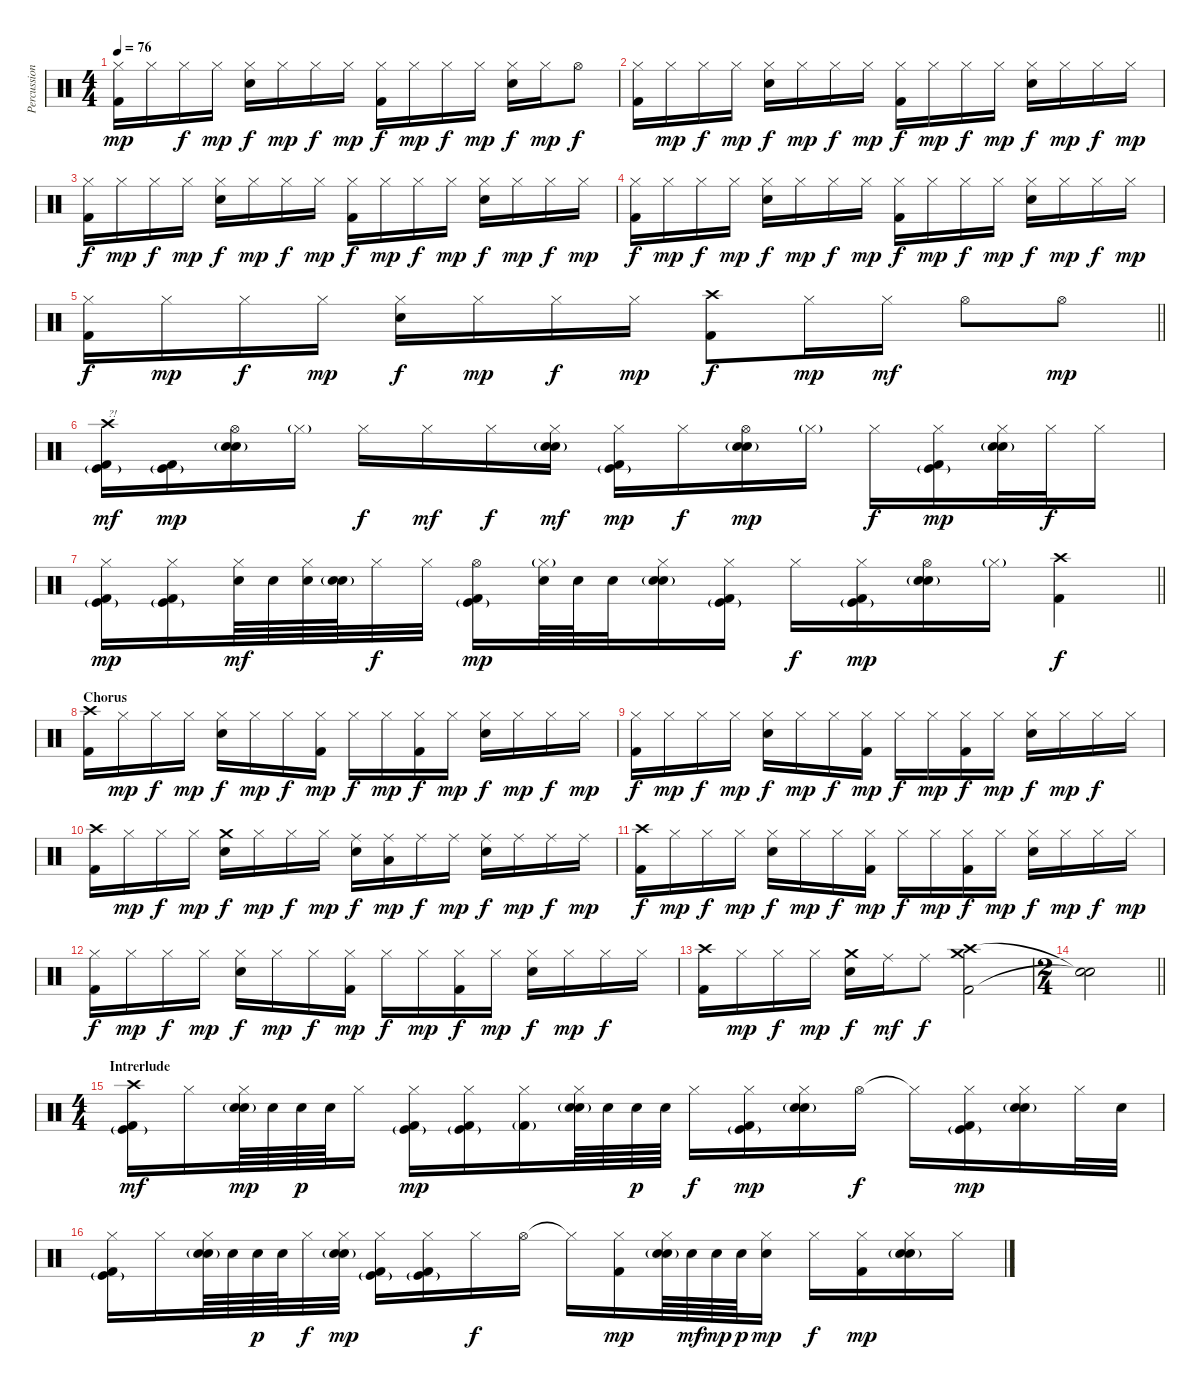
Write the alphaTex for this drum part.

\track ("Percussion" "Percussion") {instrument percussion}
\staff {score}
\articulation defaults
\ts (4 4)
\tempo 76
\clef neutral
\ks c
("Kick (hit) 2" "Hi-Hat (closed)").16{dy mp} "Hi-Hat (closed)".16 "Hi-Hat (closed)".16{dy f} "Hi-Hat (closed)".16{dy mp} ("Snare (hit) 2" "Hi-Hat (closed)").16{dy f} "Hi-Hat (closed)".16{dy mp} "Hi-Hat (closed)".16{dy f} "Hi-Hat (closed)".16{dy mp} ("Kick (hit) 2" "Hi-Hat (closed)").16{dy f} "Hi-Hat (closed)".16{dy mp} "Hi-Hat (closed)".16{dy f} "Hi-Hat (closed)".16{dy mp} ("Snare (hit) 2" "Hi-Hat (closed)").16{dy f} "Hi-Hat (closed)".16{dy mp} "Hi-Hat (open)".8{dy f} |
("Kick (hit) 2" "Hi-Hat (closed)").16 "Hi-Hat (closed)".16{dy mp} "Hi-Hat (closed)".16{dy f} "Hi-Hat (closed)".16{dy mp} ("Snare (hit) 2" "Hi-Hat (closed)").16{dy f} "Hi-Hat (closed)".16{dy mp} "Hi-Hat (closed)".16{dy f} "Hi-Hat (closed)".16{dy mp} ("Kick (hit) 2" "Hi-Hat (closed)").16{dy f} "Hi-Hat (closed)".16{dy mp} "Hi-Hat (closed)".16{dy f} "Hi-Hat (closed)".16{dy mp} ("Snare (hit) 2" "Hi-Hat (closed)").16{dy f} "Hi-Hat (closed)".16{dy mp} "Hi-Hat (closed)".16{dy f} "Hi-Hat (closed)".16{dy mp} |
("Kick (hit) 2" "Hi-Hat (closed)").16{dy f} "Hi-Hat (closed)".16{dy mp} "Hi-Hat (closed)".16{dy f} "Hi-Hat (closed)".16{dy mp} ("Snare (hit) 2" "Hi-Hat (closed)").16{dy f} "Hi-Hat (closed)".16{dy mp} "Hi-Hat (closed)".16{dy f} "Hi-Hat (closed)".16{dy mp} ("Kick (hit) 2" "Hi-Hat (closed)").16{dy f} "Hi-Hat (closed)".16{dy mp} "Hi-Hat (closed)".16{dy f} "Hi-Hat (closed)".16{dy mp} ("Snare (hit) 2" "Hi-Hat (closed)").16{dy f} "Hi-Hat (closed)".16{dy mp} "Hi-Hat (closed)".16{dy f} "Hi-Hat (closed)".16{dy mp} |
("Kick (hit) 2" "Hi-Hat (closed)").16{dy f} "Hi-Hat (closed)".16{dy mp} "Hi-Hat (closed)".16{dy f} "Hi-Hat (closed)".16{dy mp} ("Snare (hit) 2" "Hi-Hat (closed)").16{dy f} "Hi-Hat (closed)".16{dy mp} "Hi-Hat (closed)".16{dy f} "Hi-Hat (closed)".16{dy mp} ("Kick (hit) 2" "Hi-Hat (closed)").16{dy f} "Hi-Hat (closed)".16{dy mp} "Hi-Hat (closed)".16{dy f} "Hi-Hat (closed)".16{dy mp} ("Snare (hit) 2" "Hi-Hat (closed)").16{dy f} "Hi-Hat (closed)".16{dy mp} "Hi-Hat (closed)".16{dy f} "Hi-Hat (closed)".16{dy mp} |
\barLineRight lightlight
("Kick (hit) 2" "Hi-Hat (closed)").16{dy f} "Hi-Hat (closed)".16{dy mp} "Hi-Hat (closed)".16{dy f} "Hi-Hat (closed)".16{dy mp} ("Snare (hit) 2" "Hi-Hat (closed)").16{dy f} "Hi-Hat (closed)".16{dy mp} "Hi-Hat (closed)".16{dy f} "Hi-Hat (closed)".16{dy mp} ("Kick (hit) 2" "Crash high (hit)").8{dy f} "Hi-Hat (closed)".16{dy mp} "Hi-Hat (closed)".16{dy mf} "Hi-Hat (open)".8 "Hi-Hat (open)".8{dy mp} |
\section ("" "")
("Kick (hit) 2" "Kick (hit)"{g} "Crash high (hit)").16{txt "?!" dy mf} ("Kick (hit) 2" "Kick (hit)"{g}).16{dy mp} ("Electric Snare (hit)"{g} "Snare (hit) 2" "Hi-Hat (open)").16 "Hi-Hat (closed)"{g}.16 "Hi-Hat (closed)".16{dy f} "Hi-Hat (closed)".16{dy mf} "Hi-Hat (closed)".16{dy f} ("Electric Snare (hit)"{g} "Snare (hit) 2" "Hi-Hat (closed)").16{dy mf} ("Kick (hit) 2" "Kick (hit)"{g} "Hi-Hat (closed)").16{dy mp} "Hi-Hat (closed)".16{dy f} ("Electric Snare (hit)"{g} "Snare (hit) 2" "Hi-Hat (open)").16{dy mp} "Hi-Hat (closed)"{g}.16 "Hi-Hat (closed)".16{dy f} ("Kick (hit) 2" "Kick (hit)"{g} "Hi-Hat (closed)").16{dy mp} ("Electric Snare (hit)"{g} "Snare (hit) 2" "Hi-Hat (closed)").32 "Hi-Hat (closed)".32{dy f} "Hi-Hat (closed)".16 |
\barLineRight lightlight
("Kick (hit) 2" "Kick (hit)"{g} "Hi-Hat (closed)").16{dy mp} ("Kick (hit) 2" "Kick (hit)"{g} "Hi-Hat (closed)").16 ("Snare (hit) 2" "Hi-Hat (closed)").64{dy mf} "Snare (hit) 2".64 ("Snare (hit) 2" "Hi-Hat (closed)").64 ("Electric Snare (hit)"{g} "Snare (hit) 2").64 "Hi-Hat (closed)".32{dy f} "Hi-Hat (closed)".32 ("Kick (hit) 2" "Kick (hit)"{g} "Hi-Hat (open)").16{dy mp} ("Snare (hit) 2" "Hi-Hat (closed)"{g}).64 "Snare (hit) 2".64 "Snare (hit) 2".32 ("Electric Snare (hit)"{g} "Snare (hit) 2" "Hi-Hat (closed)").16 ("Kick (hit) 2" "Kick (hit)"{g} "Hi-Hat (closed)").16 "Hi-Hat (closed)".16{dy f} ("Kick (hit) 2" "Kick (hit)"{g} "Hi-Hat (closed)").16{dy mp} ("Electric Snare (hit)"{g} "Snare (hit) 2" "Hi-Hat (open)").16 "Hi-Hat (closed)"{g}.16 ("Kick (hit) 2" "Crash high (hit)").4{dy f} |
\section ("" "Chorus")
("Kick (hit) 2" "Crash high (hit)").16 "Hi-Hat (closed)".16{dy mp} "Hi-Hat (closed)".16{dy f} "Hi-Hat (closed)".16{dy mp} ("Snare (hit) 2" "Hi-Hat (closed)").16{dy f} "Hi-Hat (closed)".16{dy mp} "Hi-Hat (closed)".16{dy f} ("Kick (hit) 2" "Hi-Hat (closed)").16{dy mp} "Hi-Hat (closed)".16{dy f} "Hi-Hat (closed)".16{dy mp} ("Kick (hit) 2" "Hi-Hat (closed)").16{dy f} "Hi-Hat (closed)".16{dy mp} ("Snare (hit) 2" "Hi-Hat (closed)").16{dy f} "Hi-Hat (closed)".16{dy mp} "Hi-Hat (closed)".16{dy f} "Hi-Hat (closed)".16{dy mp} |
("Kick (hit) 2" "Hi-Hat (closed)").16{dy f} "Hi-Hat (closed)".16{dy mp} "Hi-Hat (closed)".16{dy f} "Hi-Hat (closed)".16{dy mp} ("Snare (hit) 2" "Hi-Hat (closed)").16{dy f} "Hi-Hat (closed)".16{dy mp} "Hi-Hat (closed)".16{dy f} ("Kick (hit) 2" "Hi-Hat (closed)").16{dy mp} "Hi-Hat (closed)".16{dy f} "Hi-Hat (closed)".16{dy mp} ("Kick (hit) 2" "Hi-Hat (closed)").16{dy f} "Hi-Hat (closed)".16{dy mp} ("Snare (hit) 2" "Hi-Hat (closed)").16{dy f} "Hi-Hat (closed)".16{dy mp} "Hi-Hat (closed)".16{dy f} "Hi-Hat (closed)".16 |
("Kick (hit) 2" "Crash high (hit)").16 "Hi-Hat (closed)".16{dy mp} "Hi-Hat (closed)".16{dy f} "Hi-Hat (closed)".16{dy mp} ("Crash medium (hit)" "Snare (hit) 2").16{dy f} "Hi-Hat (closed)".16{dy mp} "Hi-Hat (closed)".16{dy f} "Hi-Hat (closed)".16{dy mp} ("Ride (middle)" "Snare (hit) 2").16{dy f} ("Ride (middle)" "Low Tom (hit)").16{dy mp} "Ride (middle)".16{dy f} "Ride (middle)".16{dy mp} ("Ride (middle)" "Snare (hit) 2").16{dy f} "Ride (middle)".16{dy mp} "Ride (middle)".16{dy f} "Ride (middle)".16{dy mp} |
("Kick (hit) 2" "Crash high (hit)").16{dy f} "Hi-Hat (closed)".16{dy mp} "Hi-Hat (closed)".16{dy f} "Hi-Hat (closed)".16{dy mp} ("Snare (hit) 2" "Hi-Hat (closed)").16{dy f} "Hi-Hat (closed)".16{dy mp} "Hi-Hat (closed)".16{dy f} ("Kick (hit) 2" "Hi-Hat (closed)").16{dy mp} "Hi-Hat (closed)".16{dy f} "Hi-Hat (closed)".16{dy mp} ("Kick (hit) 2" "Hi-Hat (closed)").16{dy f} "Hi-Hat (closed)".16{dy mp} ("Snare (hit) 2" "Hi-Hat (closed)").16{dy f} "Hi-Hat (closed)".16{dy mp} "Hi-Hat (closed)".16{dy f} "Hi-Hat (closed)".16{dy mp} |
("Kick (hit) 2" "Hi-Hat (closed)").16{dy f} "Hi-Hat (closed)".16{dy mp} "Hi-Hat (closed)".16{dy f} "Hi-Hat (closed)".16{dy mp} ("Snare (hit) 2" "Hi-Hat (closed)").16{dy f} "Hi-Hat (closed)".16{dy mp} "Hi-Hat (closed)".16{dy f} ("Kick (hit) 2" "Hi-Hat (closed)").16{dy mp} "Hi-Hat (closed)".16{dy f} "Hi-Hat (closed)".16{dy mp} ("Kick (hit) 2" "Hi-Hat (closed)").16{dy f} "Hi-Hat (closed)".16{dy mp} ("Snare (hit) 2" "Hi-Hat (closed)").16{dy f} "Hi-Hat (closed)".16{dy mp} "Hi-Hat (closed)".16{dy f} "Hi-Hat (closed)".16 |
("Kick (hit) 2" "Crash high (hit)").16 "Hi-Hat (closed)".16{dy mp} "Hi-Hat (closed)".16{dy f} "Hi-Hat (closed)".16{dy mp} ("Crash medium (hit)" "Snare (hit) 2").16{dy f} "Ride (middle)".16{dy mf} "Ride (middle)".8{dy f} ("Kick (hit) 2" "Crash high (hit)" "Crash medium (hit)").2 |
\ts (2 4)
\barLineRight lightlight
("Snare (hit)"{t} "Snare (hit)"{t}).2 |
\ts (4 4)
\section ("" "Intrerlude")
("Kick (hit) 2" "Kick (hit)"{g} "Crash high (hit)").16{dy mf} "Hi-Hat (closed)".16 ("Electric Snare (hit)"{g} "Snare (hit) 2" "Hi-Hat (closed)").64{dy mp} "Snare (hit) 2".64 "Snare (hit) 2".64{dy p} "Snare (hit) 2".64 "Hi-Hat (closed)".16 ("Kick (hit) 2" "Kick (hit)"{g} "Hi-Hat (closed)").16{dy mp} ("Kick (hit) 2" "Kick (hit)"{g} "Hi-Hat (closed)").16 ("Kick (hit) 2"{g} "Hi-Hat (closed)").16 ("Electric Snare (hit)"{g} "Snare (hit) 2" "Hi-Hat (closed)").64 "Snare (hit) 2".64 "Snare (hit) 2".64{dy p} "Snare (hit) 2".64 "Hi-Hat (closed)".16{dy f} ("Kick (hit) 2" "Kick (hit)"{g} "Hi-Hat (closed)").16{dy mp} ("Electric Snare (hit)"{g} "Snare (hit) 2" "Hi-Hat (closed)").16 "Hi-Hat (open)".16{dy f} "Hi-Hat (closed)"{t}.16 ("Kick (hit) 2" "Kick (hit)"{g} "Hi-Hat (closed)").16{dy mp} ("Electric Snare (hit)"{g} "Snare (hit) 2" "Hi-Hat (closed)").16 "Hi-Hat (closed)".32 "Snare (hit) 2".32 |
("Kick (hit) 2" "Kick (hit)"{g} "Hi-Hat (closed)").16 "Hi-Hat (closed)".16 ("Electric Snare (hit)"{g} "Snare (hit) 2" "Hi-Hat (closed)").64 "Snare (hit) 2".64 "Snare (hit) 2".64{dy p} "Snare (hit) 2".64 "Hi-Hat (closed)".32{dy f} ("Electric Snare (hit)"{g} "Snare (hit) 2" "Hi-Hat (closed)").32{dy mp} ("Kick (hit) 2" "Kick (hit)"{g} "Hi-Hat (closed)").16 ("Kick (hit) 2" "Kick (hit)"{g} "Hi-Hat (closed)").16 "Hi-Hat (closed)".16{dy f} "Hi-Hat (open)".16 "Hi-Hat (closed)"{t}.16 ("Kick (hit) 2" "Hi-Hat (closed)").16{dy mp} ("Electric Snare (hit)"{g} "Snare (hit) 2" "Hi-Hat (closed)").64 "Snare (hit) 2".64{dy mf} "Snare (hit) 2".64{dy mp} "Snare (hit) 2".64{dy p} ("Snare (hit) 2" "Hi-Hat (closed)").16{dy mp} "Hi-Hat (closed)".16{dy f} ("Kick (hit) 2" "Hi-Hat (closed)").16{dy mp} ("Electric Snare (hit)"{g} "Snare (hit) 2" "Hi-Hat (closed)").16 "Hi-Hat (closed)".16
